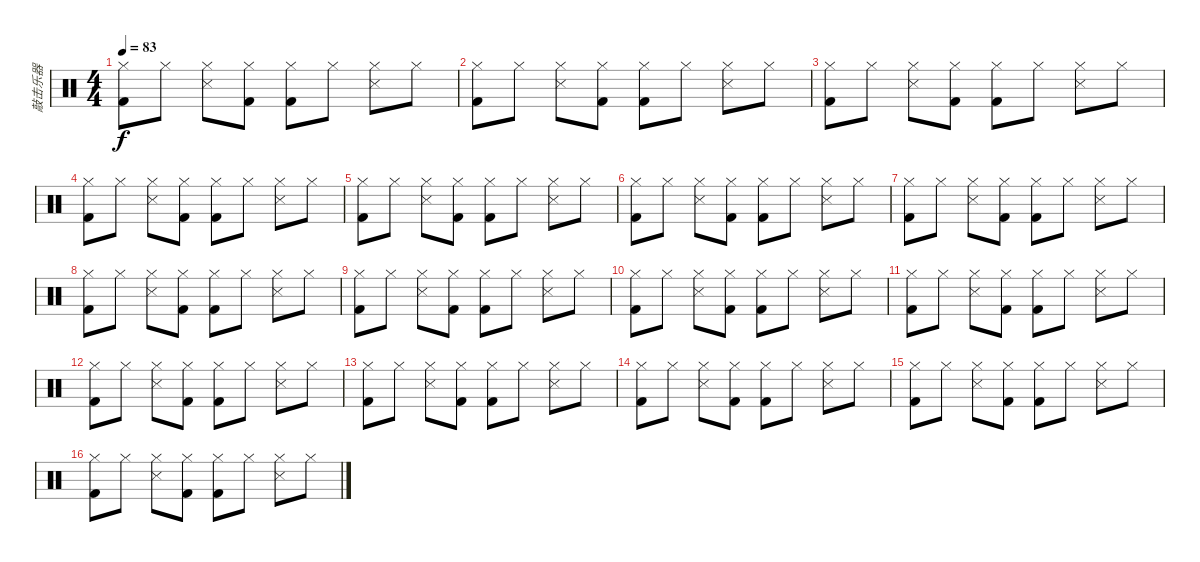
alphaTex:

\track ("敲击乐器" "敲击乐器") {instrument percussion}
\staff {score}
\articulation defaults
\ts (4 4)
\tempo 83
\clef neutral
\ks c
("Kick (hit) 2" "Hi-Hat (closed)").8{dy f} "Hi-Hat (closed)".8 ("Snare (side stick) 3" "Hi-Hat (closed)").8 ("Kick (hit) 2" "Hi-Hat (closed)").8 ("Kick (hit) 2" "Hi-Hat (closed)").8 "Hi-Hat (closed)".8 ("Snare (side stick) 3" "Hi-Hat (closed)").8 "Hi-Hat (closed)".8 |
("Kick (hit) 2" "Hi-Hat (closed)").8 "Hi-Hat (closed)".8 ("Snare (side stick) 3" "Hi-Hat (closed)").8 ("Kick (hit) 2" "Hi-Hat (closed)").8 ("Kick (hit) 2" "Hi-Hat (closed)").8 "Hi-Hat (closed)".8 ("Snare (side stick) 3" "Hi-Hat (closed)").8 "Hi-Hat (closed)".8 |
("Kick (hit) 2" "Hi-Hat (closed)").8 "Hi-Hat (closed)".8 ("Snare (side stick) 3" "Hi-Hat (closed)").8 ("Kick (hit) 2" "Hi-Hat (closed)").8 ("Kick (hit) 2" "Hi-Hat (closed)").8 "Hi-Hat (closed)".8 ("Snare (side stick) 3" "Hi-Hat (closed)").8 "Hi-Hat (closed)".8 |
("Kick (hit) 2" "Hi-Hat (closed)").8 "Hi-Hat (closed)".8 ("Snare (side stick) 3" "Hi-Hat (closed)").8 ("Kick (hit) 2" "Hi-Hat (closed)").8 ("Kick (hit) 2" "Hi-Hat (closed)").8 "Hi-Hat (closed)".8 ("Snare (side stick) 3" "Hi-Hat (closed)").8 "Hi-Hat (closed)".8 |
("Kick (hit) 2" "Hi-Hat (closed)").8 "Hi-Hat (closed)".8 ("Snare (side stick) 3" "Hi-Hat (closed)").8 ("Kick (hit) 2" "Hi-Hat (closed)").8 ("Kick (hit) 2" "Hi-Hat (closed)").8 "Hi-Hat (closed)".8 ("Snare (side stick) 3" "Hi-Hat (closed)").8 "Hi-Hat (closed)".8 |
("Kick (hit) 2" "Hi-Hat (closed)").8 "Hi-Hat (closed)".8 ("Snare (side stick) 3" "Hi-Hat (closed)").8 ("Kick (hit) 2" "Hi-Hat (closed)").8 ("Kick (hit) 2" "Hi-Hat (closed)").8 "Hi-Hat (closed)".8 ("Snare (side stick) 3" "Hi-Hat (closed)").8 "Hi-Hat (closed)".8 |
("Kick (hit) 2" "Hi-Hat (closed)").8 "Hi-Hat (closed)".8 ("Snare (side stick) 3" "Hi-Hat (closed)").8 ("Kick (hit) 2" "Hi-Hat (closed)").8 ("Kick (hit) 2" "Hi-Hat (closed)").8 "Hi-Hat (closed)".8 ("Snare (side stick) 3" "Hi-Hat (closed)").8 "Hi-Hat (closed)".8 |
("Kick (hit) 2" "Hi-Hat (closed)").8 "Hi-Hat (closed)".8 ("Snare (side stick) 3" "Hi-Hat (closed)").8 ("Kick (hit) 2" "Hi-Hat (closed)").8 ("Kick (hit) 2" "Hi-Hat (closed)").8 "Hi-Hat (closed)".8 ("Snare (side stick) 3" "Hi-Hat (closed)").8 "Hi-Hat (closed)".8 |
("Kick (hit) 2" "Hi-Hat (closed)").8 "Hi-Hat (closed)".8 ("Snare (side stick) 3" "Hi-Hat (closed)").8 ("Kick (hit) 2" "Hi-Hat (closed)").8 ("Kick (hit) 2" "Hi-Hat (closed)").8 "Hi-Hat (closed)".8 ("Snare (side stick) 3" "Hi-Hat (closed)").8 "Hi-Hat (closed)".8 |
("Kick (hit) 2" "Hi-Hat (closed)").8 "Hi-Hat (closed)".8 ("Snare (side stick) 3" "Hi-Hat (closed)").8 ("Kick (hit) 2" "Hi-Hat (closed)").8 ("Kick (hit) 2" "Hi-Hat (closed)").8 "Hi-Hat (closed)".8 ("Snare (side stick) 3" "Hi-Hat (closed)").8 "Hi-Hat (closed)".8 |
("Kick (hit) 2" "Hi-Hat (closed)").8 "Hi-Hat (closed)".8 ("Snare (side stick) 3" "Hi-Hat (closed)").8 ("Kick (hit) 2" "Hi-Hat (closed)").8 ("Kick (hit) 2" "Hi-Hat (closed)").8 "Hi-Hat (closed)".8 ("Snare (side stick) 3" "Hi-Hat (closed)").8 "Hi-Hat (closed)".8 |
("Kick (hit) 2" "Hi-Hat (closed)").8 "Hi-Hat (closed)".8 ("Snare (side stick) 3" "Hi-Hat (closed)").8 ("Kick (hit) 2" "Hi-Hat (closed)").8 ("Kick (hit) 2" "Hi-Hat (closed)").8 "Hi-Hat (closed)".8 ("Snare (side stick) 3" "Hi-Hat (closed)").8 "Hi-Hat (closed)".8 |
("Kick (hit) 2" "Hi-Hat (closed)").8 "Hi-Hat (closed)".8 ("Snare (side stick) 3" "Hi-Hat (closed)").8 ("Kick (hit) 2" "Hi-Hat (closed)").8 ("Kick (hit) 2" "Hi-Hat (closed)").8 "Hi-Hat (closed)".8 ("Snare (side stick) 3" "Hi-Hat (closed)").8 "Hi-Hat (closed)".8 |
("Kick (hit) 2" "Hi-Hat (closed)").8 "Hi-Hat (closed)".8 ("Snare (side stick) 3" "Hi-Hat (closed)").8 ("Kick (hit) 2" "Hi-Hat (closed)").8 ("Kick (hit) 2" "Hi-Hat (closed)").8 "Hi-Hat (closed)".8 ("Snare (side stick) 3" "Hi-Hat (closed)").8 "Hi-Hat (closed)".8 |
("Kick (hit) 2" "Hi-Hat (closed)").8 "Hi-Hat (closed)".8 ("Snare (side stick) 3" "Hi-Hat (closed)").8 ("Kick (hit) 2" "Hi-Hat (closed)").8 ("Kick (hit) 2" "Hi-Hat (closed)").8 "Hi-Hat (closed)".8 ("Snare (side stick) 3" "Hi-Hat (closed)").8 "Hi-Hat (closed)".8 |
("Kick (hit) 2" "Hi-Hat (closed)").8 "Hi-Hat (closed)".8 ("Snare (side stick) 3" "Hi-Hat (closed)").8 ("Kick (hit) 2" "Hi-Hat (closed)").8 ("Kick (hit) 2" "Hi-Hat (closed)").8 "Hi-Hat (closed)".8 ("Snare (side stick) 3" "Hi-Hat (closed)").8 "Hi-Hat (closed)".8
